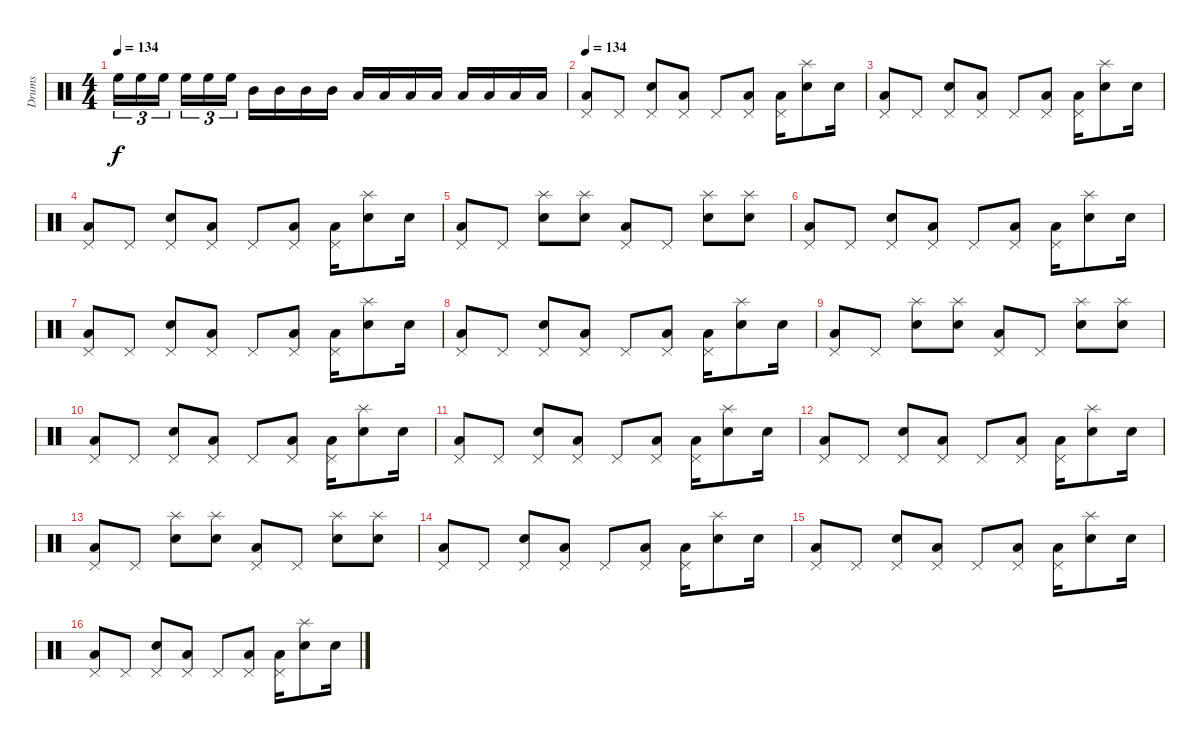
\track ("Drums" "Drums") {instrument percussion}
\staff {score}
\articulation defaults
\ts (4 4)
\tempo 134
\clef neutral
\ks c "High Floor Tom (hit)".16{tu (3 2) dy f} "High Floor Tom (hit)".16{tu (3 2)} "High Floor Tom (hit)".16{tu (3 2)} "High Floor Tom (hit)".16{tu (3 2)} "High Floor Tom (hit)".16{tu (3 2)} "High Floor Tom (hit)".16{tu (3 2)} "Mid Tom (hit)".16 "Mid Tom (hit)".16 "Mid Tom (hit)".16 "Mid Tom (hit)".16 "Low Tom (hit)".16 "Low Tom (hit)".16 "Low Tom (hit)".16 "Low Tom (hit)".16 "Low Floor Tom (hit)".16 "Low Floor Tom (hit)".16 "Low Floor Tom (hit)".16 "Low Floor Tom (hit)".16
|
\tempo 134
("Low Floor Tom (hit)" "Pedal Hi-Hat (hit)").8 "Pedal Hi-Hat (hit)".8 ("Electric Snare (hit)" "Pedal Hi-Hat (hit)").8 ("Low Floor Tom (hit)" "Pedal Hi-Hat (hit)").8 "Pedal Hi-Hat (hit)".8 ("Low Floor Tom (hit)" "Pedal Hi-Hat (hit)").8 ("Low Floor Tom (hit)" "Pedal Hi-Hat (hit)").16 ("Electric Snare (hit)" "Splash (hit)").8 "Electric Snare (hit)".16 |
("Low Floor Tom (hit)" "Pedal Hi-Hat (hit)").8 "Pedal Hi-Hat (hit)".8 ("Electric Snare (hit)" "Pedal Hi-Hat (hit)").8 ("Low Floor Tom (hit)" "Pedal Hi-Hat (hit)").8 "Pedal Hi-Hat (hit)".8 ("Low Floor Tom (hit)" "Pedal Hi-Hat (hit)").8 ("Low Floor Tom (hit)" "Pedal Hi-Hat (hit)").16 ("Electric Snare (hit)" "Splash (hit)").8 "Electric Snare (hit)".16 |
("Low Floor Tom (hit)" "Pedal Hi-Hat (hit)").8 "Pedal Hi-Hat (hit)".8 ("Electric Snare (hit)" "Pedal Hi-Hat (hit)").8 ("Low Floor Tom (hit)" "Pedal Hi-Hat (hit)").8 "Pedal Hi-Hat (hit)".8 ("Low Floor Tom (hit)" "Pedal Hi-Hat (hit)").8 ("Low Floor Tom (hit)" "Pedal Hi-Hat (hit)").16 ("Electric Snare (hit)" "Splash (hit)").8 "Electric Snare (hit)".16 |
("Low Floor Tom (hit)" "Pedal Hi-Hat (hit)").8 "Pedal Hi-Hat (hit)".8 ("Electric Snare (hit)" "Splash (hit)").8 ("Electric Snare (hit)" "Splash (hit)").8 ("Low Floor Tom (hit)" "Pedal Hi-Hat (hit)").8 "Pedal Hi-Hat (hit)".8 ("Electric Snare (hit)" "Splash (hit)").8 ("Electric Snare (hit)" "Splash (hit)").8 |
("Low Floor Tom (hit)" "Pedal Hi-Hat (hit)").8 "Pedal Hi-Hat (hit)".8 ("Electric Snare (hit)" "Pedal Hi-Hat (hit)").8 ("Low Floor Tom (hit)" "Pedal Hi-Hat (hit)").8 "Pedal Hi-Hat (hit)".8 ("Low Floor Tom (hit)" "Pedal Hi-Hat (hit)").8 ("Low Floor Tom (hit)" "Pedal Hi-Hat (hit)").16 ("Electric Snare (hit)" "Splash (hit)").8 "Electric Snare (hit)".16 |
("Low Floor Tom (hit)" "Pedal Hi-Hat (hit)").8 "Pedal Hi-Hat (hit)".8 ("Electric Snare (hit)" "Pedal Hi-Hat (hit)").8 ("Low Floor Tom (hit)" "Pedal Hi-Hat (hit)").8 "Pedal Hi-Hat (hit)".8 ("Low Floor Tom (hit)" "Pedal Hi-Hat (hit)").8 ("Low Floor Tom (hit)" "Pedal Hi-Hat (hit)").16 ("Electric Snare (hit)" "Splash (hit)").8 "Electric Snare (hit)".16 |
("Low Floor Tom (hit)" "Pedal Hi-Hat (hit)").8 "Pedal Hi-Hat (hit)".8 ("Electric Snare (hit)" "Pedal Hi-Hat (hit)").8 ("Low Floor Tom (hit)" "Pedal Hi-Hat (hit)").8 "Pedal Hi-Hat (hit)".8 ("Low Floor Tom (hit)" "Pedal Hi-Hat (hit)").8 ("Low Floor Tom (hit)" "Pedal Hi-Hat (hit)").16 ("Electric Snare (hit)" "Splash (hit)").8 "Electric Snare (hit)".16 |
("Low Floor Tom (hit)" "Pedal Hi-Hat (hit)").8 "Pedal Hi-Hat (hit)".8 ("Electric Snare (hit)" "Splash (hit)").8 ("Electric Snare (hit)" "Splash (hit)").8 ("Low Floor Tom (hit)" "Pedal Hi-Hat (hit)").8 "Pedal Hi-Hat (hit)".8 ("Electric Snare (hit)" "Splash (hit)").8 ("Electric Snare (hit)" "Splash (hit)").8 |
("Low Floor Tom (hit)" "Pedal Hi-Hat (hit)").8 "Pedal Hi-Hat (hit)".8 ("Electric Snare (hit)" "Pedal Hi-Hat (hit)").8 ("Low Floor Tom (hit)" "Pedal Hi-Hat (hit)").8 "Pedal Hi-Hat (hit)".8 ("Low Floor Tom (hit)" "Pedal Hi-Hat (hit)").8 ("Low Floor Tom (hit)" "Pedal Hi-Hat (hit)").16 ("Electric Snare (hit)" "Splash (hit)").8 "Electric Snare (hit)".16 |
("Low Floor Tom (hit)" "Pedal Hi-Hat (hit)").8 "Pedal Hi-Hat (hit)".8 ("Electric Snare (hit)" "Pedal Hi-Hat (hit)").8 ("Low Floor Tom (hit)" "Pedal Hi-Hat (hit)").8 "Pedal Hi-Hat (hit)".8 ("Low Floor Tom (hit)" "Pedal Hi-Hat (hit)").8 ("Low Floor Tom (hit)" "Pedal Hi-Hat (hit)").16 ("Electric Snare (hit)" "Splash (hit)").8 "Electric Snare (hit)".16 |
("Low Floor Tom (hit)" "Pedal Hi-Hat (hit)").8 "Pedal Hi-Hat (hit)".8 ("Electric Snare (hit)" "Pedal Hi-Hat (hit)").8 ("Low Floor Tom (hit)" "Pedal Hi-Hat (hit)").8 "Pedal Hi-Hat (hit)".8 ("Low Floor Tom (hit)" "Pedal Hi-Hat (hit)").8 ("Low Floor Tom (hit)" "Pedal Hi-Hat (hit)").16 ("Electric Snare (hit)" "Splash (hit)").8 "Electric Snare (hit)".16 |
("Low Floor Tom (hit)" "Pedal Hi-Hat (hit)").8 "Pedal Hi-Hat (hit)".8 ("Electric Snare (hit)" "Splash (hit)").8 ("Electric Snare (hit)" "Splash (hit)").8 ("Low Floor Tom (hit)" "Pedal Hi-Hat (hit)").8 "Pedal Hi-Hat (hit)".8 ("Electric Snare (hit)" "Splash (hit)").8 ("Electric Snare (hit)" "Splash (hit)").8 |
("Low Floor Tom (hit)" "Pedal Hi-Hat (hit)").8 "Pedal Hi-Hat (hit)".8 ("Electric Snare (hit)" "Pedal Hi-Hat (hit)").8 ("Low Floor Tom (hit)" "Pedal Hi-Hat (hit)").8 "Pedal Hi-Hat (hit)".8 ("Low Floor Tom (hit)" "Pedal Hi-Hat (hit)").8 ("Low Floor Tom (hit)" "Pedal Hi-Hat (hit)").16 ("Electric Snare (hit)" "Splash (hit)").8 "Electric Snare (hit)".16 |
("Low Floor Tom (hit)" "Pedal Hi-Hat (hit)").8 "Pedal Hi-Hat (hit)".8 ("Electric Snare (hit)" "Pedal Hi-Hat (hit)").8 ("Low Floor Tom (hit)" "Pedal Hi-Hat (hit)").8 "Pedal Hi-Hat (hit)".8 ("Low Floor Tom (hit)" "Pedal Hi-Hat (hit)").8 ("Low Floor Tom (hit)" "Pedal Hi-Hat (hit)").16 ("Electric Snare (hit)" "Splash (hit)").8 "Electric Snare (hit)".16 |
("Low Floor Tom (hit)" "Pedal Hi-Hat (hit)").8 "Pedal Hi-Hat (hit)".8 ("Electric Snare (hit)" "Pedal Hi-Hat (hit)").8 ("Low Floor Tom (hit)" "Pedal Hi-Hat (hit)").8 "Pedal Hi-Hat (hit)".8 ("Low Floor Tom (hit)" "Pedal Hi-Hat (hit)").8 ("Low Floor Tom (hit)" "Pedal Hi-Hat (hit)").16 ("Electric Snare (hit)" "Splash (hit)").8 "Electric Snare (hit)".16
